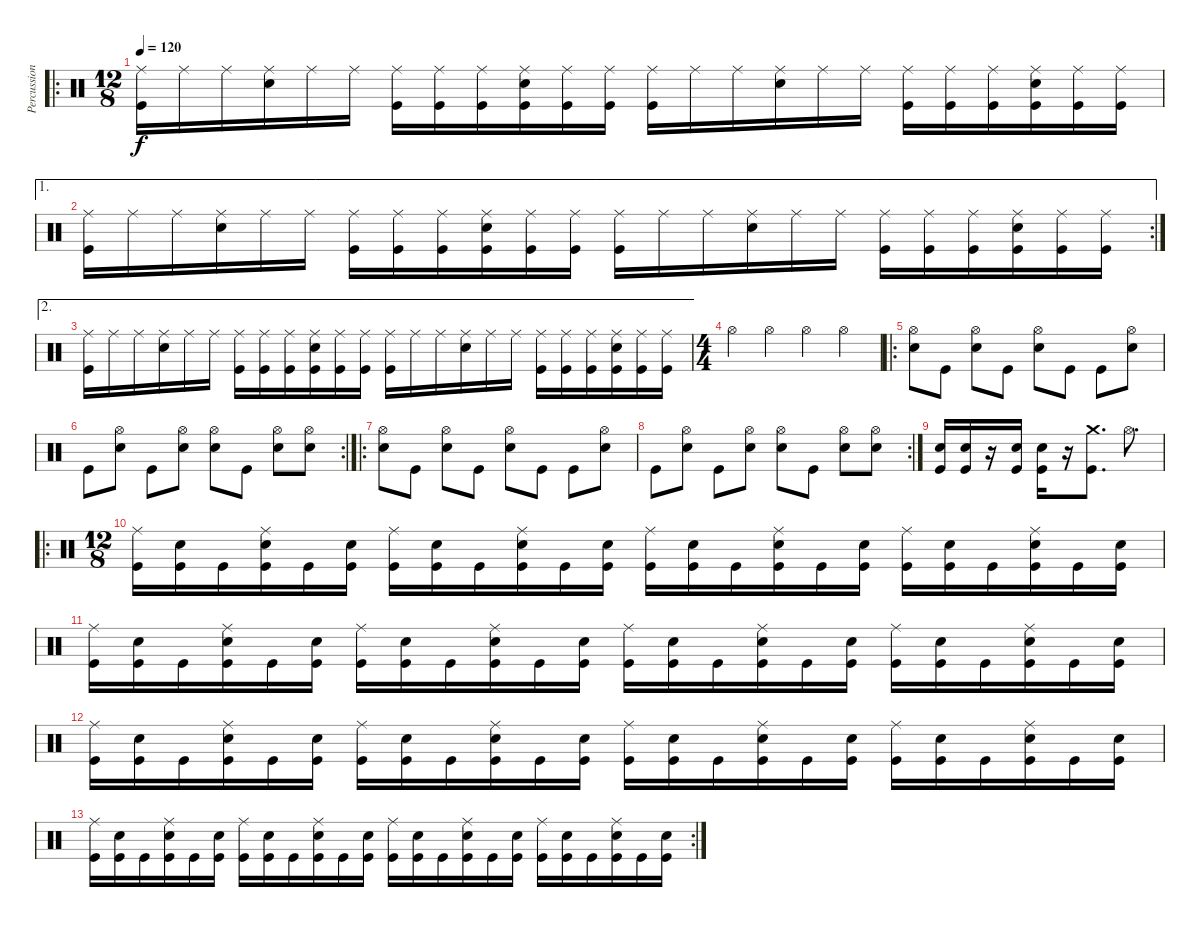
\track ("Percussion" "Percussion") {instrument percussion}
\staff {score}
\articulation defaults
\ro
\ts (12 8)
\tempo 120
\clef neutral
\ks c
("Ride (middle)" "Kick (hit)").16{dy f} "Ride (middle)".16 "Ride (middle)".16 ("Ride (middle)" "Snare (hit) 2").16 "Ride (middle)".16 "Ride (middle)".16 ("Ride (middle)" "Kick (hit)").16 ("Ride (middle)" "Kick (hit)").16 ("Ride (middle)" "Kick (hit)").16 ("Ride (middle)" "Snare (hit) 2" "Kick (hit)").16 ("Ride (middle)" "Kick (hit)").16 ("Ride (middle)" "Kick (hit)").16 ("Ride (middle)" "Kick (hit)").16 "Ride (middle)".16 "Ride (middle)".16 ("Ride (middle)" "Snare (hit) 2").16 "Ride (middle)".16 "Ride (middle)".16 ("Ride (middle)" "Kick (hit)").16 ("Ride (middle)" "Kick (hit)").16 ("Ride (middle)" "Kick (hit)").16 ("Ride (middle)" "Snare (hit) 2" "Kick (hit)").16 ("Ride (middle)" "Kick (hit)").16 ("Ride (middle)" "Kick (hit)").16 |
\ae 1
\rc 2
("Ride (middle)" "Kick (hit)").16 "Ride (middle)".16 "Ride (middle)".16 ("Ride (middle)" "Snare (hit) 2").16 "Ride (middle)".16 "Ride (middle)".16 ("Ride (middle)" "Kick (hit)").16 ("Ride (middle)" "Kick (hit)").16 ("Ride (middle)" "Kick (hit)").16 ("Ride (middle)" "Snare (hit) 2" "Kick (hit)").16 ("Ride (middle)" "Kick (hit)").16 ("Ride (middle)" "Kick (hit)").16 ("Ride (middle)" "Kick (hit)").16 "Ride (middle)".16 "Ride (middle)".16 ("Ride (middle)" "Snare (hit) 2").16 "Ride (middle)".16 "Ride (middle)".16 ("Ride (middle)" "Kick (hit)").16 ("Ride (middle)" "Kick (hit)").16 ("Ride (middle)" "Kick (hit)").16 ("Ride (middle)" "Snare (hit) 2" "Kick (hit)").16 ("Ride (middle)" "Kick (hit)").16 ("Ride (middle)" "Kick (hit)").16 |
\ae 2
("Ride (middle)" "Kick (hit)").16 "Ride (middle)".16 "Ride (middle)".16 ("Ride (middle)" "Snare (hit) 2").16 "Ride (middle)".16 "Ride (middle)".16 ("Ride (middle)" "Kick (hit)").16 ("Ride (middle)" "Kick (hit)").16 ("Ride (middle)" "Kick (hit)").16 ("Ride (middle)" "Snare (hit) 2" "Kick (hit)").16 ("Ride (middle)" "Kick (hit)").16 ("Ride (middle)" "Kick (hit)").16 ("Ride (middle)" "Kick (hit)").16 "Ride (middle)".16 "Ride (middle)".16 ("Ride (middle)" "Snare (hit) 2").16 "Ride (middle)".16 "Ride (middle)".16 ("Ride (middle)" "Kick (hit)").16 ("Ride (middle)" "Kick (hit)").16 ("Ride (middle)" "Kick (hit)").16 ("Ride (middle)" "Snare (hit) 2" "Kick (hit)").16 ("Ride (middle)" "Kick (hit)").16 ("Ride (middle)" "Kick (hit)").16 |
\ts (4 4)
"Hi-Hat (open)".4 "Hi-Hat (open)".4 "Hi-Hat (open)".4 "Hi-Hat (open)".4 |
\ro
("Hi-Hat (open)" "Snare (hit) 2").8 "Kick (hit)".8 ("Hi-Hat (open)" "Snare (hit) 2").8 "Kick (hit)".8 ("Hi-Hat (open)" "Snare (hit) 2").8 "Kick (hit)".8 "Kick (hit)".8 ("Hi-Hat (open)" "Snare (hit) 2").8 |
\rc 2 "Kick (hit)".8
("Hi-Hat (open)" "Snare (hit) 2").8 "Kick (hit)".8 ("Hi-Hat (open)" "Snare (hit) 2").8 ("Hi-Hat (open)" "Snare (hit) 2").8 "Kick (hit)".8 ("Hi-Hat (open)" "Snare (hit) 2").8 ("Hi-Hat (open)" "Snare (hit) 2").8 |
\ro
("Hi-Hat (open)" "Snare (hit) 2").8 "Kick (hit)".8 ("Hi-Hat (open)" "Snare (hit) 2").8 "Kick (hit)".8 ("Hi-Hat (open)" "Snare (hit) 2").8 "Kick (hit)".8 "Kick (hit)".8 ("Hi-Hat (open)" "Snare (hit) 2").8 |
\rc 2 "Kick (hit)".8
("Hi-Hat (open)" "Snare (hit) 2").8 "Kick (hit)".8 ("Hi-Hat (open)" "Snare (hit) 2").8 ("Hi-Hat (open)" "Snare (hit) 2").8 "Kick (hit)".8 ("Hi-Hat (open)" "Snare (hit) 2").8 ("Hi-Hat (open)" "Snare (hit) 2").8 |
("Snare (hit) 2" "Kick (hit)").16 ("Snare (hit) 2" "Kick (hit)").16 r.16 ("Snare (hit) 2" "Kick (hit)").16 ("Snare (hit) 2" "Kick (hit)").16 r.16 ("Crash medium (hit)" "Kick (hit)").8{d} "Hi-Hat (open)".8{d} |
\ro
\ts (12 8)
("Ride (middle)" "Kick (hit)").16 ("Snare (hit) 2" "Kick (hit)").16 "Kick (hit)".16 ("Ride (middle)" "Snare (hit) 2" "Kick (hit)").16 "Kick (hit)".16 ("Snare (hit) 2" "Kick (hit)").16 ("Ride (middle)" "Kick (hit)").16 ("Snare (hit) 2" "Kick (hit)").16 "Kick (hit)".16 ("Ride (middle)" "Snare (hit) 2" "Kick (hit)").16 "Kick (hit)".16 ("Snare (hit) 2" "Kick (hit)").16 ("Ride (middle)" "Kick (hit)").16 ("Snare (hit) 2" "Kick (hit)").16 "Kick (hit)".16 ("Ride (middle)" "Snare (hit) 2" "Kick (hit)").16 "Kick (hit)".16 ("Snare (hit) 2" "Kick (hit)").16 ("Ride (middle)" "Kick (hit)").16 ("Snare (hit) 2" "Kick (hit)").16 "Kick (hit)".16 ("Ride (middle)" "Snare (hit) 2" "Kick (hit)").16 "Kick (hit)".16 ("Snare (hit) 2" "Kick (hit)").16 |
("Ride (middle)" "Kick (hit)").16 ("Snare (hit) 2" "Kick (hit)").16 "Kick (hit)".16 ("Ride (middle)" "Snare (hit) 2" "Kick (hit)").16 "Kick (hit)".16 ("Snare (hit) 2" "Kick (hit)").16 ("Ride (middle)" "Kick (hit)").16 ("Snare (hit) 2" "Kick (hit)").16 "Kick (hit)".16 ("Ride (middle)" "Snare (hit) 2" "Kick (hit)").16 "Kick (hit)".16 ("Snare (hit) 2" "Kick (hit)").16 ("Ride (middle)" "Kick (hit)").16 ("Snare (hit) 2" "Kick (hit)").16 "Kick (hit)".16 ("Ride (middle)" "Snare (hit) 2" "Kick (hit)").16 "Kick (hit)".16 ("Snare (hit) 2" "Kick (hit)").16 ("Ride (middle)" "Kick (hit)").16 ("Snare (hit) 2" "Kick (hit)").16 "Kick (hit)".16 ("Ride (middle)" "Snare (hit) 2" "Kick (hit)").16 "Kick (hit)".16 ("Snare (hit) 2" "Kick (hit)").16 |
("Ride (middle)" "Kick (hit)").16 ("Snare (hit) 2" "Kick (hit)").16 "Kick (hit)".16 ("Ride (middle)" "Snare (hit) 2" "Kick (hit)").16 "Kick (hit)".16 ("Snare (hit) 2" "Kick (hit)").16 ("Ride (middle)" "Kick (hit)").16 ("Snare (hit) 2" "Kick (hit)").16 "Kick (hit)".16 ("Ride (middle)" "Snare (hit) 2" "Kick (hit)").16 "Kick (hit)".16 ("Snare (hit) 2" "Kick (hit)").16 ("Ride (middle)" "Kick (hit)").16 ("Snare (hit) 2" "Kick (hit)").16 "Kick (hit)".16 ("Ride (middle)" "Snare (hit) 2" "Kick (hit)").16 "Kick (hit)".16 ("Snare (hit) 2" "Kick (hit)").16 ("Ride (middle)" "Kick (hit)").16 ("Snare (hit) 2" "Kick (hit)").16 "Kick (hit)".16 ("Ride (middle)" "Snare (hit) 2" "Kick (hit)").16 "Kick (hit)".16 ("Snare (hit) 2" "Kick (hit)").16 |
\rc 2
("Ride (middle)" "Kick (hit)").16 ("Snare (hit) 2" "Kick (hit)").16 "Kick (hit)".16 ("Ride (middle)" "Snare (hit) 2" "Kick (hit)").16 "Kick (hit)".16 ("Snare (hit) 2" "Kick (hit)").16 ("Ride (middle)" "Kick (hit)").16 ("Snare (hit) 2" "Kick (hit)").16 "Kick (hit)".16 ("Ride (middle)" "Snare (hit) 2" "Kick (hit)").16 "Kick (hit)".16 ("Snare (hit) 2" "Kick (hit)").16 ("Ride (middle)" "Kick (hit)").16 ("Snare (hit) 2" "Kick (hit)").16 "Kick (hit)".16 ("Ride (middle)" "Snare (hit) 2" "Kick (hit)").16 "Kick (hit)".16 ("Snare (hit) 2" "Kick (hit)").16 ("Ride (middle)" "Kick (hit)").16 ("Snare (hit) 2" "Kick (hit)").16 "Kick (hit)".16 ("Ride (middle)" "Snare (hit) 2" "Kick (hit)").16 "Kick (hit)".16 ("Snare (hit) 2" "Kick (hit)").16
